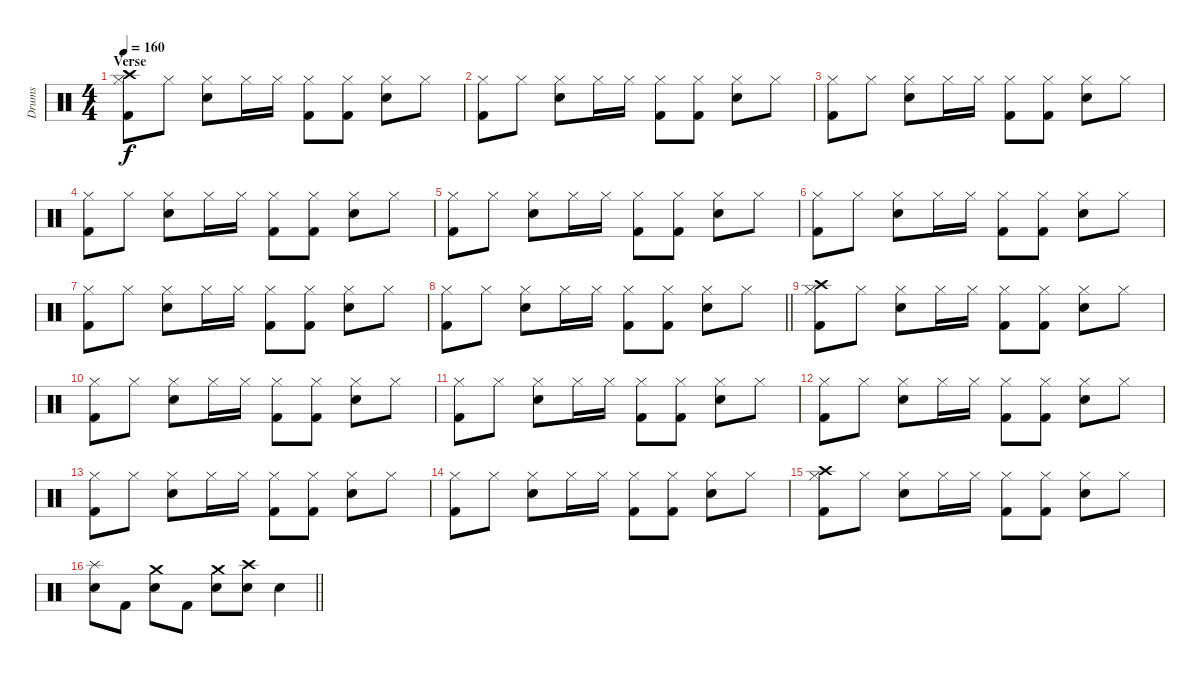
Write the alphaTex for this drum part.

\track ("Drums" "Drums") {instrument percussion}
\staff {score}
\articulation defaults
\ts (4 4)
\section ("" "Verse")
\tempo 160
\clef neutral
\ks c
("Hi-Hat (closed)" "Crash high (hit)" "Kick (hit) 2").8{dy f} "Hi-Hat (closed)".8 ("Hi-Hat (closed)" "Electric Snare (hit)").8 "Hi-Hat (closed)".16 "Hi-Hat (closed)".16 ("Hi-Hat (closed)" "Kick (hit) 2").8 ("Hi-Hat (closed)" "Kick (hit) 2").8 ("Hi-Hat (closed)" "Electric Snare (hit)").8 "Hi-Hat (closed)".8 |
("Hi-Hat (closed)" "Kick (hit) 2").8 "Hi-Hat (closed)".8 ("Hi-Hat (closed)" "Electric Snare (hit)").8 "Hi-Hat (closed)".16 "Hi-Hat (closed)".16 ("Hi-Hat (closed)" "Kick (hit) 2").8 ("Hi-Hat (closed)" "Kick (hit) 2").8 ("Hi-Hat (closed)" "Electric Snare (hit)").8 "Hi-Hat (closed)".8 |
("Hi-Hat (closed)" "Kick (hit) 2").8 "Hi-Hat (closed)".8 ("Hi-Hat (closed)" "Electric Snare (hit)").8 "Hi-Hat (closed)".16 "Hi-Hat (closed)".16 ("Hi-Hat (closed)" "Kick (hit) 2").8 ("Hi-Hat (closed)" "Kick (hit) 2").8 ("Hi-Hat (closed)" "Electric Snare (hit)").8 "Hi-Hat (closed)".8 |
("Hi-Hat (closed)" "Kick (hit) 2").8 "Hi-Hat (closed)".8 ("Hi-Hat (closed)" "Electric Snare (hit)").8 "Hi-Hat (closed)".16 "Hi-Hat (closed)".16 ("Hi-Hat (closed)" "Kick (hit) 2").8 ("Hi-Hat (closed)" "Kick (hit) 2").8 ("Hi-Hat (closed)" "Electric Snare (hit)").8 "Hi-Hat (closed)".8 |
("Hi-Hat (closed)" "Kick (hit) 2").8 "Hi-Hat (closed)".8 ("Hi-Hat (closed)" "Electric Snare (hit)").8 "Hi-Hat (closed)".16 "Hi-Hat (closed)".16 ("Hi-Hat (closed)" "Kick (hit) 2").8 ("Hi-Hat (closed)" "Kick (hit) 2").8 ("Hi-Hat (closed)" "Electric Snare (hit)").8 "Hi-Hat (closed)".8 |
("Hi-Hat (closed)" "Kick (hit) 2").8 "Hi-Hat (closed)".8 ("Hi-Hat (closed)" "Electric Snare (hit)").8 "Hi-Hat (closed)".16 "Hi-Hat (closed)".16 ("Hi-Hat (closed)" "Kick (hit) 2").8 ("Hi-Hat (closed)" "Kick (hit) 2").8 ("Hi-Hat (closed)" "Electric Snare (hit)").8 "Hi-Hat (closed)".8 |
("Hi-Hat (closed)" "Kick (hit) 2").8 "Hi-Hat (closed)".8 ("Hi-Hat (closed)" "Electric Snare (hit)").8 "Hi-Hat (closed)".16 "Hi-Hat (closed)".16 ("Hi-Hat (closed)" "Kick (hit) 2").8 ("Hi-Hat (closed)" "Kick (hit) 2").8 ("Hi-Hat (closed)" "Electric Snare (hit)").8 "Hi-Hat (closed)".8 |
\barLineRight lightlight
("Hi-Hat (closed)" "Kick (hit) 2").8 "Hi-Hat (closed)".8 ("Hi-Hat (closed)" "Electric Snare (hit)").8 "Hi-Hat (closed)".16 "Hi-Hat (closed)".16 ("Hi-Hat (closed)" "Kick (hit) 2").8 ("Hi-Hat (closed)" "Kick (hit) 2").8 ("Hi-Hat (closed)" "Electric Snare (hit)").8 "Hi-Hat (closed)".8 |
("Hi-Hat (closed)" "Crash high (hit)" "Kick (hit) 2").8 "Hi-Hat (closed)".8 ("Hi-Hat (closed)" "Electric Snare (hit)").8 "Hi-Hat (closed)".16 "Hi-Hat (closed)".16 ("Hi-Hat (closed)" "Kick (hit) 2").8 ("Hi-Hat (closed)" "Kick (hit) 2").8 ("Hi-Hat (closed)" "Electric Snare (hit)").8 "Hi-Hat (closed)".8 |
("Hi-Hat (closed)" "Kick (hit) 2").8 "Hi-Hat (closed)".8 ("Hi-Hat (closed)" "Electric Snare (hit)").8 "Hi-Hat (closed)".16 "Hi-Hat (closed)".16 ("Hi-Hat (closed)" "Kick (hit) 2").8 ("Hi-Hat (closed)" "Kick (hit) 2").8 ("Hi-Hat (closed)" "Electric Snare (hit)").8 "Hi-Hat (closed)".8 |
("Hi-Hat (closed)" "Kick (hit) 2").8 "Hi-Hat (closed)".8 ("Hi-Hat (closed)" "Electric Snare (hit)").8 "Hi-Hat (closed)".16 "Hi-Hat (closed)".16 ("Hi-Hat (closed)" "Kick (hit) 2").8 ("Hi-Hat (closed)" "Kick (hit) 2").8 ("Hi-Hat (closed)" "Electric Snare (hit)").8 "Hi-Hat (closed)".8 |
("Hi-Hat (closed)" "Kick (hit) 2").8 "Hi-Hat (closed)".8 ("Hi-Hat (closed)" "Electric Snare (hit)").8 "Hi-Hat (closed)".16 "Hi-Hat (closed)".16 ("Hi-Hat (closed)" "Kick (hit) 2").8 ("Hi-Hat (closed)" "Kick (hit) 2").8 ("Hi-Hat (closed)" "Electric Snare (hit)").8 "Hi-Hat (closed)".8 |
("Hi-Hat (closed)" "Kick (hit) 2").8 "Hi-Hat (closed)".8 ("Hi-Hat (closed)" "Electric Snare (hit)").8 "Hi-Hat (closed)".16 "Hi-Hat (closed)".16 ("Hi-Hat (closed)" "Kick (hit) 2").8 ("Hi-Hat (closed)" "Kick (hit) 2").8 ("Hi-Hat (closed)" "Electric Snare (hit)").8 "Hi-Hat (closed)".8 |
("Hi-Hat (closed)" "Kick (hit) 2").8 "Hi-Hat (closed)".8 ("Hi-Hat (closed)" "Electric Snare (hit)").8 "Hi-Hat (closed)".16 "Hi-Hat (closed)".16 ("Hi-Hat (closed)" "Kick (hit) 2").8 ("Hi-Hat (closed)" "Kick (hit) 2").8 ("Hi-Hat (closed)" "Electric Snare (hit)").8 "Hi-Hat (closed)".8 |
("Hi-Hat (closed)" "Crash high (hit)" "Kick (hit) 2").8 "Hi-Hat (closed)".8 ("Hi-Hat (closed)" "Electric Snare (hit)").8 "Hi-Hat (closed)".16 "Hi-Hat (closed)".16 ("Hi-Hat (closed)" "Kick (hit) 2").8 ("Hi-Hat (closed)" "Kick (hit) 2").8 ("Hi-Hat (closed)" "Electric Snare (hit)").8 "Hi-Hat (closed)".8 |
\barLineRight lightlight
("Splash (hit)" "Electric Snare (hit)").8 "Kick (hit) 2".8 ("Crash medium (hit)" "Electric Snare (hit)").8 "Kick (hit) 2".8 ("Crash medium (hit)" "Electric Snare (hit)").8 ("Crash high (hit)" "Electric Snare (hit)").8 "Electric Snare (hit)".4
